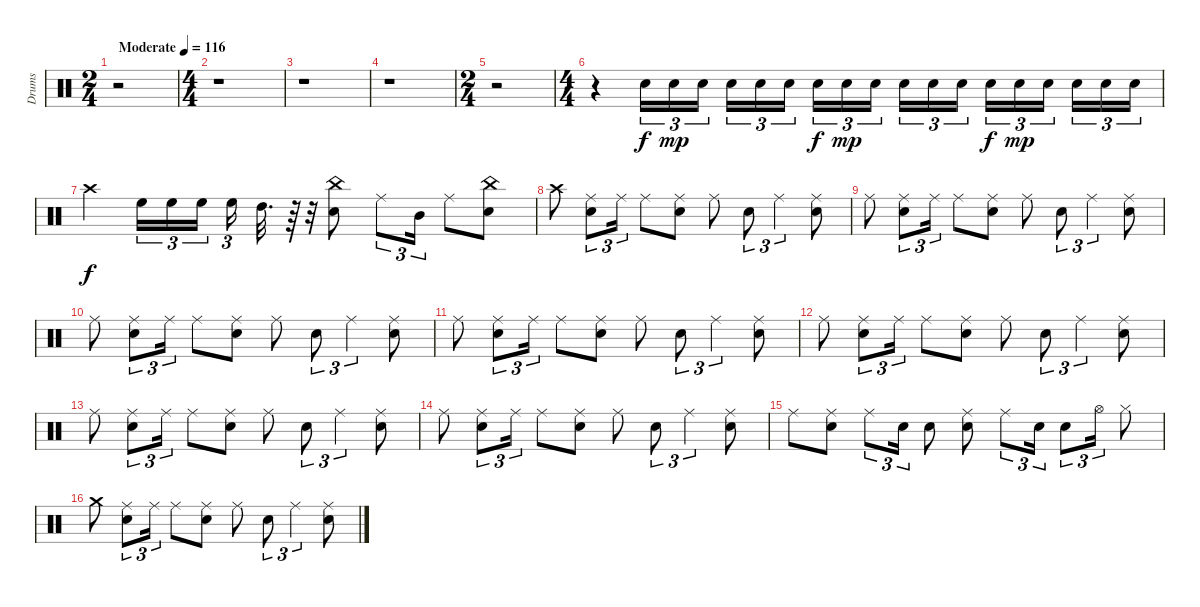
\track ("Drums" "Drums") {instrument percussion}
\staff {score}
\articulation defaults
\ts (2 4)
\tempo (116 "Moderate")
\clef neutral
\ks c
r.2{dy f} |
\ts (4 4)
r.1 |
r.1 |
r.1 |
\ts (2 4)
r.2 |
\ts (4 4)
r.4 "Snare (hit) 2".16{tu (3 2)} "Snare (hit) 2".16{tu (3 2) dy mp} "Snare (hit) 2".16{tu (3 2)} "Snare (hit) 2".16{tu (3 2)} "Snare (hit) 2".16{tu (3 2)} "Snare (hit) 2".16{tu (3 2)} "Snare (hit) 2".16{tu (3 2) dy f} "Snare (hit) 2".16{tu (3 2) dy mp} "Snare (hit) 2".16{tu (3 2)} "Snare (hit) 2".16{tu (3 2)} "Snare (hit) 2".16{tu (3 2)} "Snare (hit) 2".16{tu (3 2)} "Snare (hit) 2".16{tu (3 2) dy f} "Snare (hit) 2".16{tu (3 2) dy mp} "Snare (hit) 2".16{tu (3 2)} "Snare (hit) 2".16{tu (3 2)} "Snare (hit) 2".16{tu (3 2)} "Snare (hit) 2".16{tu (3 2)} |
"Crash high (hit)".4{dy f} "High Floor Tom (hit)".16{tu (3 2)} "High Floor Tom (hit)".16{tu (3 2)} "High Floor Tom (hit)".16{tu (3 2)} "High Floor Tom (hit)".16{tu (3 2)} "High Tom (hit)".32{d} r.64 r.32 ("China (hit)" "Snare (hit) 2").8 "Ride (middle)".8{tu (3 2)} "Mid Tom (hit)".16{tu (3 2)} "Ride (middle)".8 ("China (hit)" "Snare (hit) 2").8 |
"Crash high (hit)".8 ("Ride (middle)" "Snare (hit) 2").8{tu (3 2)} "Ride (middle)".16{tu (3 2)} "Ride (middle)".8 ("Ride (middle)" "Snare (hit) 2").8 "Ride (middle)".8 "Snare (hit) 2".8{tu (3 2)} "Ride (middle)".4{tu (3 2)} ("Ride (middle)" "Snare (hit) 2").8 |
"Ride (middle)".8 ("Ride (middle)" "Snare (hit) 2").8{tu (3 2)} "Ride (middle)".16{tu (3 2)} "Ride (middle)".8 ("Ride (middle)" "Snare (hit) 2").8 "Ride (middle)".8 "Snare (hit) 2".8{tu (3 2)} "Ride (middle)".4{tu (3 2)} ("Ride (middle)" "Snare (hit) 2").8 |
"Ride (middle)".8 ("Ride (middle)" "Snare (hit) 2").8{tu (3 2)} "Ride (middle)".16{tu (3 2)} "Ride (middle)".8 ("Ride (middle)" "Snare (hit) 2").8 "Ride (middle)".8 "Snare (hit) 2".8{tu (3 2)} "Ride (middle)".4{tu (3 2)} ("Ride (middle)" "Snare (hit) 2").8 |
"Ride (middle)".8 ("Ride (middle)" "Snare (hit) 2").8{tu (3 2)} "Ride (middle)".16{tu (3 2)} "Ride (middle)".8 ("Ride (middle)" "Snare (hit) 2").8 "Ride (middle)".8 "Snare (hit) 2".8{tu (3 2)} "Ride (middle)".4{tu (3 2)} ("Ride (middle)" "Snare (hit) 2").8 |
"Ride (middle)".8 ("Ride (middle)" "Snare (hit) 2").8{tu (3 2)} "Ride (middle)".16{tu (3 2)} "Ride (middle)".8 ("Ride (middle)" "Snare (hit) 2").8 "Ride (middle)".8 "Snare (hit) 2".8{tu (3 2)} "Ride (middle)".4{tu (3 2)} ("Ride (middle)" "Snare (hit) 2").8 |
"Ride (middle)".8 ("Ride (middle)" "Snare (hit) 2").8{tu (3 2)} "Ride (middle)".16{tu (3 2)} "Ride (middle)".8 ("Ride (middle)" "Snare (hit) 2").8 "Ride (middle)".8 "Snare (hit) 2".8{tu (3 2)} "Ride (middle)".4{tu (3 2)} ("Ride (middle)" "Snare (hit) 2").8 |
"Ride (middle)".8 ("Ride (middle)" "Snare (hit) 2").8{tu (3 2)} "Ride (middle)".16{tu (3 2)} "Ride (middle)".8 ("Ride (middle)" "Snare (hit) 2").8 "Ride (middle)".8 "Snare (hit) 2".8{tu (3 2)} "Ride (middle)".4{tu (3 2)} ("Ride (middle)" "Snare (hit) 2").8 |
"Ride (middle)".8 ("Ride (middle)" "Snare (hit) 2").8 "Ride (middle)".8{tu (3 2)} "Snare (hit) 2".16{tu (3 2)} "Snare (hit) 2".8 ("Ride (middle)" "Snare (hit) 2").8 "Ride (middle)".8{tu (3 2)} "Snare (hit) 2".16{tu (3 2)} "Snare (hit) 2".8{tu (3 2)} "Hi-Hat (open)".16{tu (3 2)} "Hi-Hat (closed)".8 |
"Crash medium (hit)".8 ("Ride (middle)" "Snare (hit) 2").8{tu (3 2)} "Ride (middle)".16{tu (3 2)} "Ride (middle)".8 ("Ride (middle)" "Snare (hit) 2").8 "Ride (middle)".8 "Snare (hit) 2".8{tu (3 2)} "Ride (middle)".4{tu (3 2)} ("Ride (middle)" "Snare (hit) 2").8
